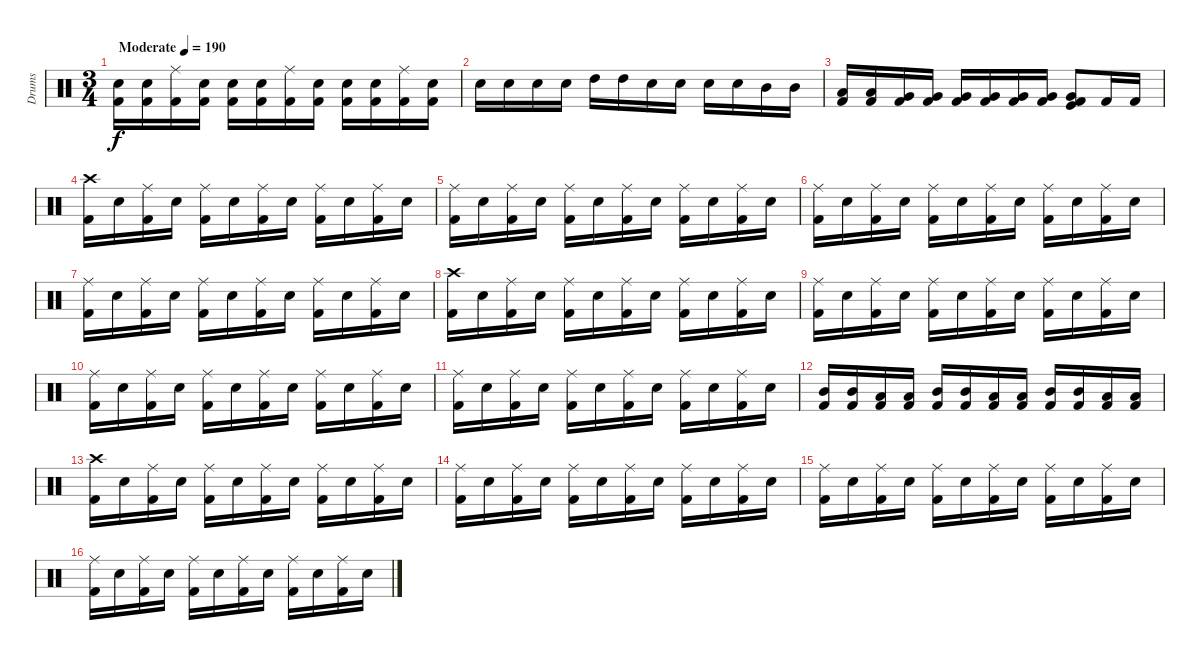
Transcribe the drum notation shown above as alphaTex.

\track ("Drums" "Drums") {instrument percussion}
\staff {score}
\articulation defaults
\ts (3 4)
\tempo (190 "Moderate")
\clef neutral
\ks c
("Snare (hit) 2" "Kick (hit) 2").16{dy f} ("Snare (hit) 2" "Kick (hit) 2").16 ("Ride (middle)" "Kick (hit) 2").16 ("Snare (hit) 2" "Kick (hit) 2").16 ("Snare (hit) 2" "Kick (hit) 2").16 ("Snare (hit) 2" "Kick (hit) 2").16 ("Ride (middle)" "Kick (hit) 2").16 ("Snare (hit) 2" "Kick (hit) 2").16 ("Snare (hit) 2" "Kick (hit) 2").16 ("Snare (hit) 2" "Kick (hit) 2").16 ("Ride (middle)" "Kick (hit) 2").16 ("Snare (hit) 2" "Kick (hit) 2").16 |
"Snare (hit) 2".16 "Snare (hit) 2".16 "Snare (hit) 2".16 "Snare (hit) 2".16 "High Tom (hit)".16 "High Tom (hit)".16 "Snare (hit) 2".16 "Snare (hit) 2".16 "Snare (hit) 2".16 "Snare (hit) 2".16 "Mid Tom (hit)".16 "Mid Tom (hit)".16 |
("Low Tom (hit)" "Kick (hit) 2").16 ("Low Tom (hit)" "Kick (hit) 2").16 ("Very Low Tom (hit)" "Kick (hit) 2").16 ("Very Low Tom (hit)" "Kick (hit) 2").16 ("Very Low Tom (hit)" "Kick (hit) 2").16 ("Very Low Tom (hit)" "Kick (hit) 2").16 ("Very Low Tom (hit)" "Kick (hit) 2").16 ("Very Low Tom (hit)" "Kick (hit) 2").16 ("Kick (hit)" "Very Low Tom (hit)" "Kick (hit) 2").8 "Kick (hit) 2".16 "Kick (hit) 2".16 |
("Crash high (hit)" "Kick (hit) 2").16 "Snare (hit) 2".16 ("Ride (middle)" "Kick (hit) 2").16 "Snare (hit) 2".16 ("Ride (middle)" "Kick (hit) 2").16 "Snare (hit) 2".16 ("Ride (middle)" "Kick (hit) 2").16 "Snare (hit) 2".16 ("Ride (middle)" "Kick (hit) 2").16 "Snare (hit) 2".16 ("Ride (middle)" "Kick (hit) 2").16 "Snare (hit) 2".16 |
("Ride (middle)" "Kick (hit) 2").16 "Snare (hit) 2".16 ("Ride (middle)" "Kick (hit) 2").16 "Snare (hit) 2".16 ("Ride (middle)" "Kick (hit) 2").16 "Snare (hit) 2".16 ("Ride (middle)" "Kick (hit) 2").16 "Snare (hit) 2".16 ("Ride (middle)" "Kick (hit) 2").16 "Snare (hit) 2".16 ("Ride (middle)" "Kick (hit) 2").16 "Snare (hit) 2".16 |
("Ride (middle)" "Kick (hit) 2").16 "Snare (hit) 2".16 ("Ride (middle)" "Kick (hit) 2").16 "Snare (hit) 2".16 ("Ride (middle)" "Kick (hit) 2").16 "Snare (hit) 2".16 ("Ride (middle)" "Kick (hit) 2").16 "Snare (hit) 2".16 ("Ride (middle)" "Kick (hit) 2").16 "Snare (hit) 2".16 ("Ride (middle)" "Kick (hit) 2").16 "Snare (hit) 2".16 |
("Ride (middle)" "Kick (hit) 2").16 "Snare (hit) 2".16 ("Ride (middle)" "Kick (hit) 2").16 "Snare (hit) 2".16 ("Ride (middle)" "Kick (hit) 2").16 "Snare (hit) 2".16 ("Ride (middle)" "Kick (hit) 2").16 "Snare (hit) 2".16 ("Ride (middle)" "Kick (hit) 2").16 "Snare (hit) 2".16 ("Ride (middle)" "Kick (hit) 2").16 "Snare (hit) 2".16 |
("Crash high (hit)" "Kick (hit) 2").16 "Snare (hit) 2".16 ("Ride (middle)" "Kick (hit) 2").16 "Snare (hit) 2".16 ("Ride (middle)" "Kick (hit) 2").16 "Snare (hit) 2".16 ("Ride (middle)" "Kick (hit) 2").16 "Snare (hit) 2".16 ("Ride (middle)" "Kick (hit) 2").16 "Snare (hit) 2".16 ("Ride (middle)" "Kick (hit) 2").16 "Snare (hit) 2".16 |
("Ride (middle)" "Kick (hit) 2").16 "Snare (hit) 2".16 ("Ride (middle)" "Kick (hit) 2").16 "Snare (hit) 2".16 ("Ride (middle)" "Kick (hit) 2").16 "Snare (hit) 2".16 ("Ride (middle)" "Kick (hit) 2").16 "Snare (hit) 2".16 ("Ride (middle)" "Kick (hit) 2").16 "Snare (hit) 2".16 ("Ride (middle)" "Kick (hit) 2").16 "Snare (hit) 2".16 |
("Ride (middle)" "Kick (hit) 2").16 "Snare (hit) 2".16 ("Ride (middle)" "Kick (hit) 2").16 "Snare (hit) 2".16 ("Ride (middle)" "Kick (hit) 2").16 "Snare (hit) 2".16 ("Ride (middle)" "Kick (hit) 2").16 "Snare (hit) 2".16 ("Ride (middle)" "Kick (hit) 2").16 "Snare (hit) 2".16 ("Ride (middle)" "Kick (hit) 2").16 "Snare (hit) 2".16 |
("Ride (middle)" "Kick (hit) 2").16 "Snare (hit) 2".16 ("Ride (middle)" "Kick (hit) 2").16 "Snare (hit) 2".16 ("Ride (middle)" "Kick (hit) 2").16 "Snare (hit) 2".16 ("Ride (middle)" "Kick (hit) 2").16 "Snare (hit) 2".16 ("Ride (middle)" "Kick (hit) 2").16 "Snare (hit) 2".16 ("Ride (middle)" "Kick (hit) 2").16 "Snare (hit) 2".16 |
("Mid Tom (hit)" "Kick (hit) 2").16 ("Mid Tom (hit)" "Kick (hit) 2").16 ("Low Tom (hit)" "Kick (hit) 2").16 ("Low Tom (hit)" "Kick (hit) 2").16 ("Mid Tom (hit)" "Kick (hit) 2").16 ("Mid Tom (hit)" "Kick (hit) 2").16 ("Low Tom (hit)" "Kick (hit) 2").16 ("Low Tom (hit)" "Kick (hit) 2").16 ("Mid Tom (hit)" "Kick (hit) 2").16 ("Mid Tom (hit)" "Kick (hit) 2").16 ("Low Tom (hit)" "Kick (hit) 2").16 ("Low Tom (hit)" "Kick (hit) 2").16 |
("Crash high (hit)" "Kick (hit) 2").16 "Snare (hit) 2".16 ("Ride (middle)" "Kick (hit) 2").16 "Snare (hit) 2".16 ("Ride (middle)" "Kick (hit) 2").16 "Snare (hit) 2".16 ("Ride (middle)" "Kick (hit) 2").16 "Snare (hit) 2".16 ("Ride (middle)" "Kick (hit) 2").16 "Snare (hit) 2".16 ("Ride (middle)" "Kick (hit) 2").16 "Snare (hit) 2".16 |
("Ride (middle)" "Kick (hit) 2").16 "Snare (hit) 2".16 ("Ride (middle)" "Kick (hit) 2").16 "Snare (hit) 2".16 ("Ride (middle)" "Kick (hit) 2").16 "Snare (hit) 2".16 ("Ride (middle)" "Kick (hit) 2").16 "Snare (hit) 2".16 ("Ride (middle)" "Kick (hit) 2").16 "Snare (hit) 2".16 ("Ride (middle)" "Kick (hit) 2").16 "Snare (hit) 2".16 |
("Ride (middle)" "Kick (hit) 2").16 "Snare (hit) 2".16 ("Ride (middle)" "Kick (hit) 2").16 "Snare (hit) 2".16 ("Ride (middle)" "Kick (hit) 2").16 "Snare (hit) 2".16 ("Ride (middle)" "Kick (hit) 2").16 "Snare (hit) 2".16 ("Ride (middle)" "Kick (hit) 2").16 "Snare (hit) 2".16 ("Ride (middle)" "Kick (hit) 2").16 "Snare (hit) 2".16 |
("Ride (middle)" "Kick (hit) 2").16 "Snare (hit) 2".16 ("Ride (middle)" "Kick (hit) 2").16 "Snare (hit) 2".16 ("Ride (middle)" "Kick (hit) 2").16 "Snare (hit) 2".16 ("Ride (middle)" "Kick (hit) 2").16 "Snare (hit) 2".16 ("Ride (middle)" "Kick (hit) 2").16 "Snare (hit) 2".16 ("Ride (middle)" "Kick (hit) 2").16 "Snare (hit) 2".16
